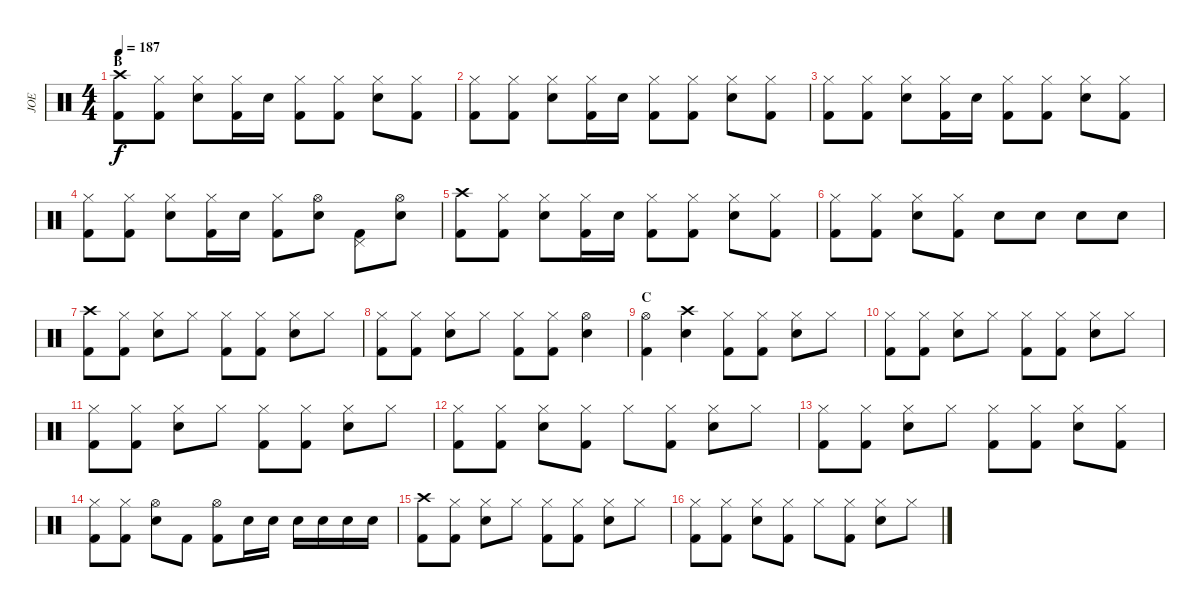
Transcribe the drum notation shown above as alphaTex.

\track ("JOE" "JOE") {instrument percussion}
\staff {score}
\articulation defaults
\ts (4 4)
\section ("" "B")
\tempo 187
\clef neutral
\ks c
("Crash high (hit)" "Kick (hit) 2").8{dy f} ("Hi-Hat (closed)" "Kick (hit) 2").8 ("Hi-Hat (closed)" "Snare (hit) 2").8 ("Hi-Hat (closed)" "Kick (hit) 2").16 "Snare (hit) 2".16 ("Hi-Hat (closed)" "Kick (hit) 2").8 ("Hi-Hat (closed)" "Kick (hit) 2").8 ("Hi-Hat (closed)" "Snare (hit) 2").8 ("Hi-Hat (closed)" "Kick (hit) 2").8 |
("Hi-Hat (closed)" "Kick (hit) 2").8 ("Hi-Hat (closed)" "Kick (hit) 2").8 ("Hi-Hat (closed)" "Snare (hit) 2").8 ("Hi-Hat (closed)" "Kick (hit) 2").16 "Snare (hit) 2".16 ("Hi-Hat (closed)" "Kick (hit) 2").8 ("Hi-Hat (closed)" "Kick (hit) 2").8 ("Hi-Hat (closed)" "Snare (hit) 2").8 ("Hi-Hat (closed)" "Kick (hit) 2").8 |
("Hi-Hat (closed)" "Kick (hit) 2").8 ("Hi-Hat (closed)" "Kick (hit) 2").8 ("Hi-Hat (closed)" "Snare (hit) 2").8 ("Hi-Hat (closed)" "Kick (hit) 2").16 "Snare (hit) 2".16 ("Hi-Hat (closed)" "Kick (hit) 2").8 ("Hi-Hat (closed)" "Kick (hit) 2").8 ("Hi-Hat (closed)" "Snare (hit) 2").8 ("Hi-Hat (closed)" "Kick (hit) 2").8 |
("Hi-Hat (closed)" "Kick (hit) 2").8 ("Hi-Hat (closed)" "Kick (hit) 2").8 ("Hi-Hat (closed)" "Snare (hit) 2").8 ("Hi-Hat (closed)" "Kick (hit) 2").16 "Snare (hit) 2".16 ("Hi-Hat (closed)" "Kick (hit) 2").8 ("Hi-Hat (open)" "Snare (hit) 2").8 ("Pedal Hi-Hat (hit)" "Kick (hit) 2").8 ("Hi-Hat (open)" "Snare (hit) 2").8 |
("Crash high (hit)" "Kick (hit) 2").8 ("Hi-Hat (closed)" "Kick (hit) 2").8 ("Hi-Hat (closed)" "Snare (hit) 2").8 ("Hi-Hat (closed)" "Kick (hit) 2").16 "Snare (hit) 2".16 ("Hi-Hat (closed)" "Kick (hit) 2").8 ("Hi-Hat (closed)" "Kick (hit) 2").8 ("Hi-Hat (closed)" "Snare (hit) 2").8 ("Hi-Hat (closed)" "Kick (hit) 2").8 |
("Hi-Hat (closed)" "Kick (hit) 2").8 ("Hi-Hat (closed)" "Kick (hit) 2").8 ("Hi-Hat (closed)" "Snare (hit) 2").8 ("Hi-Hat (closed)" "Kick (hit) 2").8 "Snare (hit) 2".8 "Snare (hit) 2".8 "Snare (hit) 2".8 "Snare (hit) 2".8 |
("Crash high (hit)" "Kick (hit) 2").8 ("Hi-Hat (closed)" "Kick (hit) 2").8 ("Hi-Hat (closed)" "Snare (hit) 2").8 "Hi-Hat (closed)".8 ("Hi-Hat (closed)" "Kick (hit) 2").8 ("Hi-Hat (closed)" "Kick (hit) 2").8 ("Hi-Hat (closed)" "Snare (hit) 2").8 "Hi-Hat (closed)".8 |
("Hi-Hat (closed)" "Kick (hit) 2").8 ("Hi-Hat (closed)" "Kick (hit) 2").8 ("Hi-Hat (closed)" "Snare (hit) 2").8 "Hi-Hat (closed)".8 ("Hi-Hat (closed)" "Kick (hit) 2").8 ("Hi-Hat (closed)" "Kick (hit) 2").8 ("Hi-Hat (open)" "Snare (hit) 2").4 |
\section ("" "C")
("Hi-Hat (open)" "Kick (hit) 2").4 ("Crash high (hit)" "Snare (hit) 2").4 ("Hi-Hat (closed)" "Kick (hit) 2").8 ("Hi-Hat (closed)" "Kick (hit) 2").8 ("Hi-Hat (closed)" "Snare (hit) 2").8 "Hi-Hat (closed)".8 |
("Hi-Hat (closed)" "Kick (hit) 2").8 ("Hi-Hat (closed)" "Kick (hit) 2").8 ("Hi-Hat (closed)" "Snare (hit) 2").8 "Hi-Hat (closed)".8 ("Hi-Hat (closed)" "Kick (hit) 2").8 ("Hi-Hat (closed)" "Kick (hit) 2").8 ("Hi-Hat (closed)" "Snare (hit) 2").8 "Hi-Hat (closed)".8 |
("Hi-Hat (closed)" "Kick (hit) 2").8 ("Hi-Hat (closed)" "Kick (hit) 2").8 ("Hi-Hat (closed)" "Snare (hit) 2").8 "Hi-Hat (closed)".8 ("Hi-Hat (closed)" "Kick (hit) 2").8 ("Hi-Hat (closed)" "Kick (hit) 2").8 ("Hi-Hat (closed)" "Snare (hit) 2").8 "Hi-Hat (closed)".8 |
("Hi-Hat (closed)" "Kick (hit) 2").8 ("Hi-Hat (closed)" "Kick (hit) 2").8 ("Hi-Hat (closed)" "Snare (hit) 2").8 ("Hi-Hat (closed)" "Kick (hit) 2").8 "Hi-Hat (closed)".8 ("Hi-Hat (closed)" "Kick (hit) 2").8 ("Hi-Hat (closed)" "Snare (hit) 2").8 "Hi-Hat (closed)".8 |
("Hi-Hat (closed)" "Kick (hit) 2").8 ("Hi-Hat (closed)" "Kick (hit) 2").8 ("Hi-Hat (closed)" "Snare (hit) 2").8 "Hi-Hat (closed)".8 ("Hi-Hat (closed)" "Kick (hit) 2").8 ("Hi-Hat (closed)" "Kick (hit) 2").8 ("Hi-Hat (closed)" "Snare (hit) 2").8 ("Hi-Hat (closed)" "Kick (hit) 2").8 |
("Hi-Hat (closed)" "Kick (hit) 2").8 ("Hi-Hat (closed)" "Kick (hit) 2").8 ("Hi-Hat (open)" "Snare (hit) 2").8 "Kick (hit) 2".8 ("Hi-Hat (open)" "Kick (hit) 2").8 "Snare (hit) 2".16 "Snare (hit) 2".16 "Snare (hit) 2".16 "Snare (hit) 2".16 "Snare (hit) 2".16 "Snare (hit) 2".16 |
("Crash high (hit)" "Kick (hit) 2").8 ("Hi-Hat (closed)" "Kick (hit) 2").8 ("Hi-Hat (closed)" "Snare (hit) 2").8 "Hi-Hat (closed)".8 ("Hi-Hat (closed)" "Kick (hit) 2").8 ("Hi-Hat (closed)" "Kick (hit) 2").8 ("Hi-Hat (closed)" "Snare (hit) 2").8 "Hi-Hat (closed)".8 |
("Hi-Hat (closed)" "Kick (hit) 2").8 ("Hi-Hat (closed)" "Kick (hit) 2").8 ("Hi-Hat (closed)" "Snare (hit) 2").8 ("Hi-Hat (closed)" "Kick (hit) 2").8 "Hi-Hat (closed)".8 ("Hi-Hat (closed)" "Kick (hit) 2").8 ("Hi-Hat (closed)" "Snare (hit) 2").8 "Hi-Hat (closed)".8
